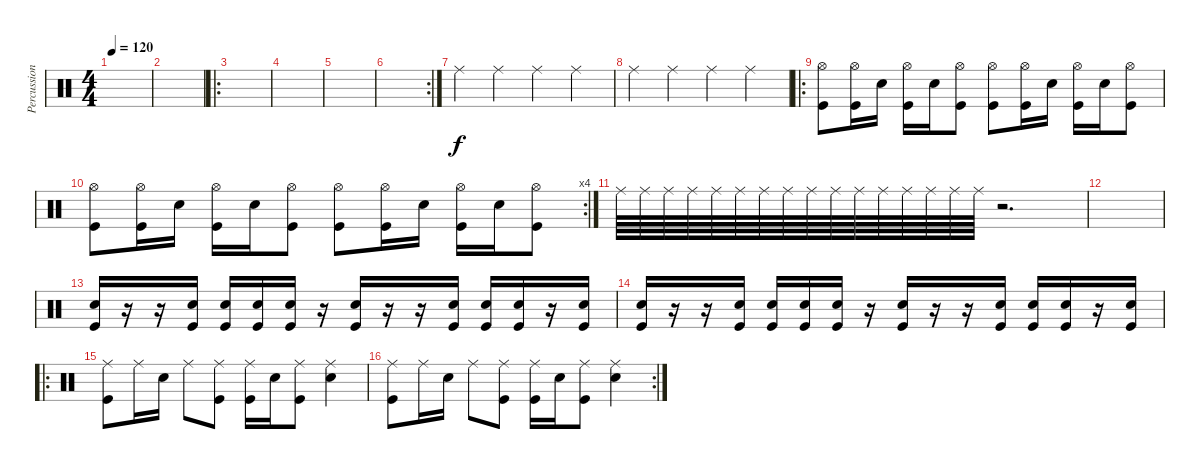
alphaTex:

\track ("Percussion" "Percussion") {instrument percussion}
\staff {score}
\articulation defaults
\ts (4 4)
\tempo 120
\clef neutral
\ks c
|
|
\ro
|
|
|
\rc 2
|
"Ride (middle)".4 "Ride (middle)".4 "Ride (middle)".4 "Ride (middle)".4 |
"Ride (middle)".4 "Ride (middle)".4 "Ride (middle)".4 "Ride (middle)".4 |
\ro
("Hi-Hat (open)" "Kick (hit)").8 ("Hi-Hat (open)" "Kick (hit)").16 "Snare (hit) 2".16 ("Hi-Hat (open)" "Kick (hit)").16 "Snare (hit) 2".16 ("Hi-Hat (open)" "Kick (hit)").8 ("Hi-Hat (open)" "Kick (hit)").8 ("Hi-Hat (open)" "Kick (hit)").16 "Snare (hit) 2".16 ("Hi-Hat (open)" "Kick (hit)").16 "Snare (hit) 2".16 ("Hi-Hat (open)" "Kick (hit)").8 |
\rc 4
("Hi-Hat (open)" "Kick (hit)").8 ("Hi-Hat (open)" "Kick (hit)").16 "Snare (hit) 2".16 ("Hi-Hat (open)" "Kick (hit)").16 "Snare (hit) 2".16 ("Hi-Hat (open)" "Kick (hit)").8 ("Hi-Hat (open)" "Kick (hit)").8 ("Hi-Hat (open)" "Kick (hit)").16 "Snare (hit) 2".16 ("Hi-Hat (open)" "Kick (hit)").16 "Snare (hit) 2".16 ("Hi-Hat (open)" "Kick (hit)").8 |
"Ride (middle)".64 "Ride (middle)".64 "Ride (middle)".64 "Ride (middle)".64 "Ride (middle)".64 "Ride (middle)".64 "Ride (middle)".64 "Ride (middle)".64 "Ride (middle)".64 "Ride (middle)".64 "Ride (middle)".64 "Ride (middle)".64 "Ride (middle)".64 "Ride (middle)".64 "Ride (middle)".64 "Ride (middle)".64 r.2{d} |
|
("Snare (hit) 2" "Kick (hit)").16 r.16 r.16 ("Snare (hit) 2" "Kick (hit)").16 ("Snare (hit) 2" "Kick (hit)").16 ("Snare (hit) 2" "Kick (hit)").16 ("Snare (hit) 2" "Kick (hit)").16 r.16 ("Snare (hit) 2" "Kick (hit)").16 r.16 r.16 ("Snare (hit) 2" "Kick (hit)").16 ("Snare (hit) 2" "Kick (hit)").16 ("Snare (hit) 2" "Kick (hit)").16 r.16 ("Snare (hit) 2" "Kick (hit)").16 |
("Snare (hit) 2" "Kick (hit)").16 r.16 r.16 ("Snare (hit) 2" "Kick (hit)").16 ("Snare (hit) 2" "Kick (hit)").16 ("Snare (hit) 2" "Kick (hit)").16 ("Snare (hit) 2" "Kick (hit)").16 r.16 ("Snare (hit) 2" "Kick (hit)").16 r.16 r.16 ("Snare (hit) 2" "Kick (hit)").16 ("Snare (hit) 2" "Kick (hit)").16 ("Snare (hit) 2" "Kick (hit)").16 r.16 ("Snare (hit) 2" "Kick (hit)").16 |
\ro
("Ride (middle)" "Kick (hit)").8 "Ride (middle)".16 "Snare (hit) 2".16 "Ride (middle)".8 ("Ride (middle)" "Kick (hit)").8 ("Ride (middle)" "Kick (hit)").16 "Snare (hit) 2".16 ("Ride (middle)" "Kick (hit)").8 ("Ride (middle)" "Snare (hit) 2").4 |
\rc 2
("Ride (middle)" "Kick (hit)").8 "Ride (middle)".16 "Snare (hit) 2".16 "Ride (middle)".8 ("Ride (middle)" "Kick (hit)").8 ("Ride (middle)" "Kick (hit)").16 "Snare (hit) 2".16 ("Ride (middle)" "Kick (hit)").8 ("Ride (middle)" "Snare (hit) 2").4
